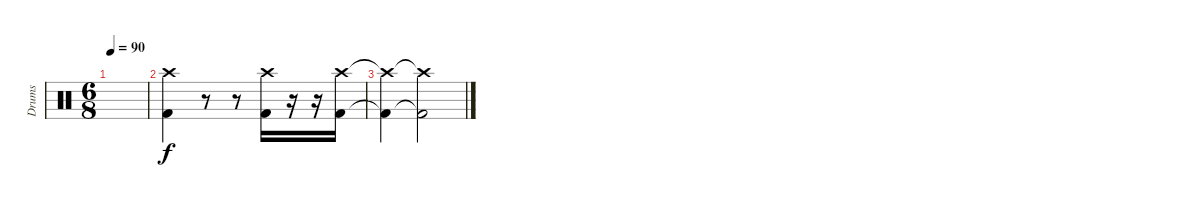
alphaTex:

\track ("Drums" "Drums") {instrument percussion}
\staff {score}
\articulation defaults
\ts (6 8)
\tempo 90
\clef neutral
\ks c
|
("Kick (hit) 2" "Crash high (hit)").4 r.8 r.8 ("Kick (hit) 2" "Crash high (hit)").16 r.16 r.16 ("Crash high (hit)" "Kick (hit) 2").16 |
("Crash high (hit)"{t} "Kick (hit) 2"{t}).4 ("Crash high (hit)"{t} "Kick (hit) 2"{t}).2
